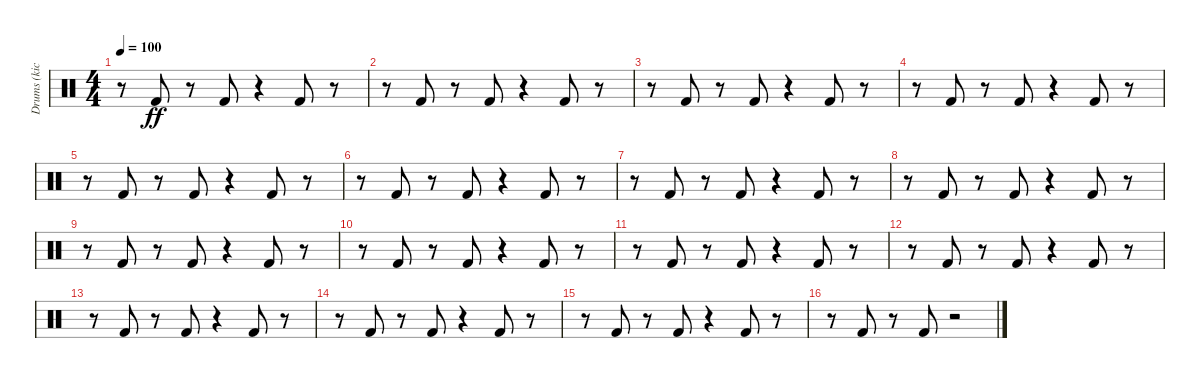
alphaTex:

\track ("Drums (kick)" "Drums (kic") {instrument percussion}
\staff {score}
\articulation defaults
\ts (4 4)
\tempo 100
\clef neutral
\ks c
r.8{dy ff} "Kick (hit) 2".8 r.8 "Kick (hit) 2".8 r.4 "Kick (hit) 2".8 r.8 |
r.8 "Kick (hit) 2".8 r.8 "Kick (hit) 2".8 r.4 "Kick (hit) 2".8 r.8 |
r.8 "Kick (hit) 2".8 r.8 "Kick (hit) 2".8 r.4 "Kick (hit) 2".8 r.8 |
r.8 "Kick (hit) 2".8 r.8 "Kick (hit) 2".8 r.4 "Kick (hit) 2".8 r.8 |
r.8 "Kick (hit) 2".8 r.8 "Kick (hit) 2".8 r.4 "Kick (hit) 2".8 r.8 |
r.8 "Kick (hit) 2".8 r.8 "Kick (hit) 2".8 r.4 "Kick (hit) 2".8 r.8 |
r.8 "Kick (hit) 2".8 r.8 "Kick (hit) 2".8 r.4 "Kick (hit) 2".8 r.8 |
r.8 "Kick (hit) 2".8 r.8 "Kick (hit) 2".8 r.4 "Kick (hit) 2".8 r.8 |
r.8 "Kick (hit) 2".8 r.8 "Kick (hit) 2".8 r.4 "Kick (hit) 2".8 r.8 |
r.8 "Kick (hit) 2".8 r.8 "Kick (hit) 2".8 r.4 "Kick (hit) 2".8 r.8 |
r.8 "Kick (hit) 2".8 r.8 "Kick (hit) 2".8 r.4 "Kick (hit) 2".8 r.8 |
r.8 "Kick (hit) 2".8 r.8 "Kick (hit) 2".8 r.4 "Kick (hit) 2".8 r.8 |
r.8 "Kick (hit) 2".8 r.8 "Kick (hit) 2".8 r.4 "Kick (hit) 2".8 r.8 |
r.8 "Kick (hit) 2".8 r.8 "Kick (hit) 2".8 r.4 "Kick (hit) 2".8 r.8 |
r.8 "Kick (hit) 2".8 r.8 "Kick (hit) 2".8 r.4 "Kick (hit) 2".8 r.8 |
r.8 "Kick (hit) 2".8 r.8 "Kick (hit) 2".8 r.2
